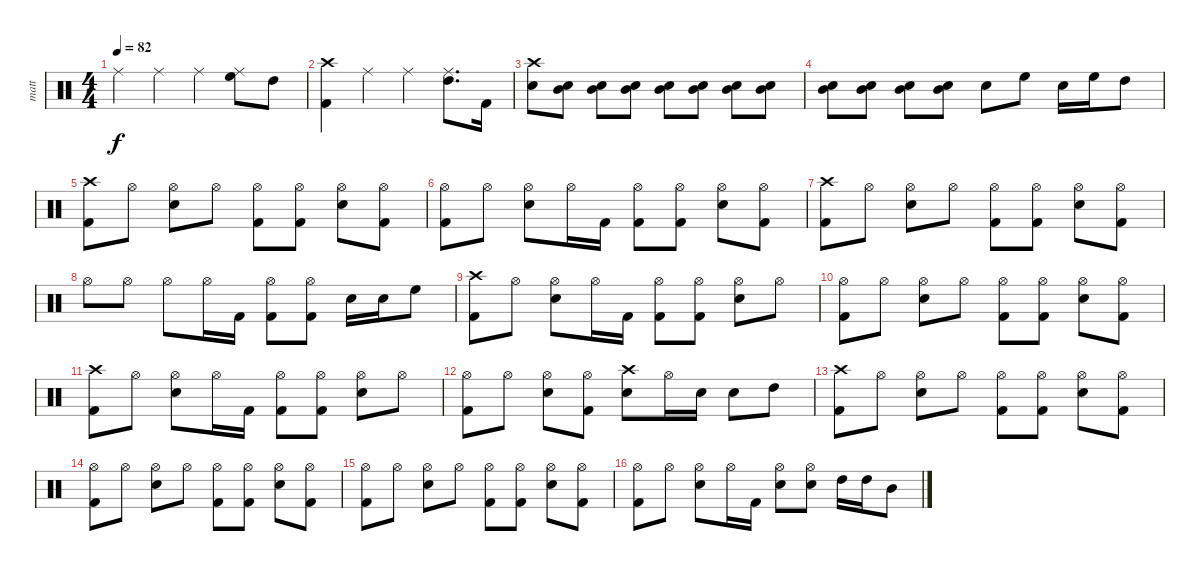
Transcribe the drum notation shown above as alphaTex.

\track ("matt" "matt") {instrument percussion}
\staff {score}
\articulation defaults
\ts (4 4)
\tempo 82
\clef neutral
\ks c "Ride (middle)".4{dy f} "Ride (middle)".4 "Ride (middle)".4
("Ride (middle)" "High Floor Tom (hit)").8 "High Tom (hit)".8 |
("Crash high (hit)" "Kick (hit) 2").4 "Ride (middle)".4 "Ride (middle)".4 ("Ride (middle)" "High Tom (hit)").8{d} "Kick (hit) 2".16 |
("Crash high (hit)" "Electric Snare (hit)").8 ("Electric Snare (hit)" "Mid Tom (hit)").8 ("Electric Snare (hit)" "Mid Tom (hit)").8 ("Electric Snare (hit)" "Mid Tom (hit)").8 ("Electric Snare (hit)" "Mid Tom (hit)").8 ("Electric Snare (hit)" "Mid Tom (hit)").8 ("Electric Snare (hit)" "Mid Tom (hit)").8 ("Electric Snare (hit)" "Mid Tom (hit)").8 |
("Electric Snare (hit)" "Mid Tom (hit)").8 ("Electric Snare (hit)" "Mid Tom (hit)").8 ("Electric Snare (hit)" "Mid Tom (hit)").8 ("Electric Snare (hit)" "Mid Tom (hit)").8 "Electric Snare (hit)".8 "High Floor Tom (hit)".8 "Electric Snare (hit)".16 "High Floor Tom (hit)".16 "High Tom (hit)".8 |
("Crash high (hit)" "Kick (hit) 2").8 "Hi-Hat (open)".8 ("Hi-Hat (open)" "Electric Snare (hit)").8 "Hi-Hat (open)".8 ("Hi-Hat (open)" "Kick (hit) 2").8 ("Hi-Hat (open)" "Kick (hit) 2").8 ("Hi-Hat (open)" "Electric Snare (hit)").8 ("Hi-Hat (open)" "Kick (hit) 2").8 |
("Hi-Hat (open)" "Kick (hit) 2").8 "Hi-Hat (open)".8 ("Hi-Hat (open)" "Electric Snare (hit)").8 "Hi-Hat (open)".16 "Kick (hit) 2".16 ("Hi-Hat (open)" "Kick (hit) 2").8 ("Hi-Hat (open)" "Kick (hit) 2").8 ("Hi-Hat (open)" "Electric Snare (hit)").8 ("Hi-Hat (open)" "Kick (hit) 2").8 |
("Crash high (hit)" "Kick (hit) 2").8 "Hi-Hat (open)".8 ("Hi-Hat (open)" "Electric Snare (hit)").8 "Hi-Hat (open)".8 ("Hi-Hat (open)" "Kick (hit) 2").8 ("Hi-Hat (open)" "Kick (hit) 2").8 ("Hi-Hat (open)" "Electric Snare (hit)").8 ("Hi-Hat (open)" "Kick (hit) 2").8 |
"Hi-Hat (open)".8 "Hi-Hat (open)".8 "Hi-Hat (open)".8 "Hi-Hat (open)".16 "Kick (hit) 2".16 ("Hi-Hat (open)" "Kick (hit) 2").8 ("Hi-Hat (open)" "Kick (hit) 2").8 "Electric Snare (hit)".16 "Electric Snare (hit)".16 "High Floor Tom (hit)".8 |
("Crash high (hit)" "Kick (hit) 2").8 "Hi-Hat (open)".8 ("Hi-Hat (open)" "Electric Snare (hit)").8 "Hi-Hat (open)".16 "Kick (hit) 2".16 ("Hi-Hat (open)" "Kick (hit) 2").8 ("Hi-Hat (open)" "Kick (hit) 2").8 ("Hi-Hat (open)" "Electric Snare (hit)").8 "Hi-Hat (open)".8 |
("Hi-Hat (open)" "Kick (hit) 2").8 "Hi-Hat (open)".8 ("Hi-Hat (open)" "Electric Snare (hit)").8 "Hi-Hat (open)".8 ("Hi-Hat (open)" "Kick (hit) 2").8 ("Hi-Hat (open)" "Kick (hit) 2").8 ("Hi-Hat (open)" "Electric Snare (hit)").8 ("Hi-Hat (open)" "Kick (hit) 2").8 |
("Crash high (hit)" "Kick (hit) 2").8 "Hi-Hat (open)".8 ("Hi-Hat (open)" "Electric Snare (hit)").8 "Hi-Hat (open)".16 "Kick (hit) 2".16 ("Hi-Hat (open)" "Kick (hit) 2").8 ("Hi-Hat (open)" "Kick (hit) 2").8 ("Hi-Hat (open)" "Electric Snare (hit)").8 "Hi-Hat (open)".8 |
("Hi-Hat (open)" "Kick (hit) 2").8 "Hi-Hat (open)".8 ("Hi-Hat (open)" "Electric Snare (hit)").8 ("Hi-Hat (open)" "Kick (hit) 2").8 ("Crash high (hit)" "Electric Snare (hit)").8 "Hi-Hat (open)".16 "Electric Snare (hit)".16 "Electric Snare (hit)".8 "High Tom (hit)".8 |
("Crash high (hit)" "Kick (hit) 2").8 "Hi-Hat (open)".8 ("Hi-Hat (open)" "Electric Snare (hit)").8 "Hi-Hat (open)".8 ("Hi-Hat (open)" "Kick (hit) 2").8 ("Hi-Hat (open)" "Kick (hit) 2").8 ("Hi-Hat (open)" "Electric Snare (hit)").8 ("Hi-Hat (open)" "Kick (hit) 2").8 |
("Hi-Hat (open)" "Kick (hit) 2").8 "Hi-Hat (open)".8 ("Hi-Hat (open)" "Electric Snare (hit)").8 "Hi-Hat (open)".8 ("Hi-Hat (open)" "Kick (hit) 2").8 ("Hi-Hat (open)" "Kick (hit) 2").8 ("Hi-Hat (open)" "Electric Snare (hit)").8 ("Hi-Hat (open)" "Kick (hit) 2").8 |
("Hi-Hat (open)" "Kick (hit) 2").8 "Hi-Hat (open)".8 ("Hi-Hat (open)" "Electric Snare (hit)").8 "Hi-Hat (open)".8 ("Hi-Hat (open)" "Kick (hit) 2").8 ("Hi-Hat (open)" "Kick (hit) 2").8 ("Hi-Hat (open)" "Electric Snare (hit)").8 ("Hi-Hat (open)" "Kick (hit) 2").8 |
("Hi-Hat (open)" "Kick (hit) 2").8 "Hi-Hat (open)".8 ("Hi-Hat (open)" "Electric Snare (hit)").8 "Hi-Hat (open)".16 "Kick (hit) 2".16 ("Hi-Hat (open)" "Electric Snare (hit)").8 ("Hi-Hat (open)" "Electric Snare (hit)").8 "High Tom (hit)".16 "High Tom (hit)".16 "Mid Tom (hit)".8
